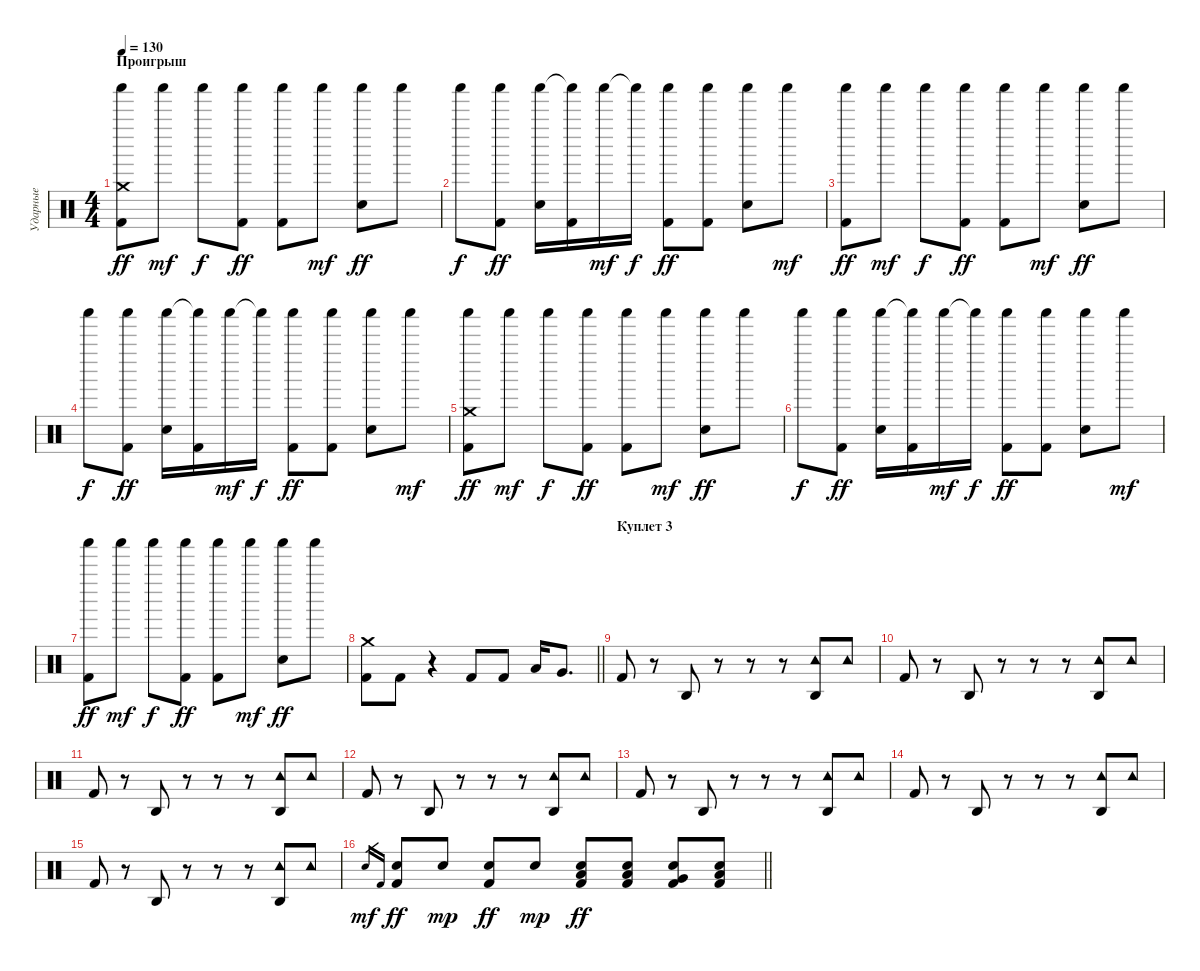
\track ("Ударные" "Ударные") {instrument percussion}
\staff {score}
\articulation defaults
\ts (4 4)
\section ("" "Проигрыш")
\tempo 130
\clef neutral
\ks c
("Shaker (hit)" "Kick (hit) 2" "Crash medium (hit)").8{dy ff} "Shaker (hit)".8{dy mf} "Shaker (hit)".8{dy f} ("Shaker (hit)" "Kick (hit) 2").8{dy ff} ("Shaker (hit)" "Kick (hit) 2").8 "Shaker (hit)".8{dy mf} ("Shaker (hit)" "Snare (hit) 2").8{dy ff} "Shaker (hit)".8 |
"Shaker (hit)".8{dy f} ("Shaker (hit)" "Kick (hit) 2").8{dy ff} ("Shaker (hit)" "Snare (hit) 2").16 ("Shaker (hit)"{t} "Kick (hit) 2").16 "Shaker (hit)".16{dy mf} "Shaker (hit)"{t}.16{dy f} ("Shaker (hit)" "Kick (hit) 2").8{dy ff} ("Shaker (hit)" "Kick (hit) 2").8 ("Shaker (hit)" "Snare (hit) 2").8 "Shaker (hit)".8{dy mf} |
("Shaker (hit)" "Kick (hit) 2").8{dy ff} "Shaker (hit)".8{dy mf} "Shaker (hit)".8{dy f} ("Shaker (hit)" "Kick (hit) 2").8{dy ff} ("Shaker (hit)" "Kick (hit) 2").8 "Shaker (hit)".8{dy mf} ("Shaker (hit)" "Snare (hit) 2").8{dy ff} "Shaker (hit)".8 |
"Shaker (hit)".8{dy f} ("Shaker (hit)" "Kick (hit) 2").8{dy ff} ("Shaker (hit)" "Snare (hit) 2").16 ("Shaker (hit)"{t} "Kick (hit) 2").16 "Shaker (hit)".16{dy mf} "Shaker (hit)"{t}.16{dy f} ("Shaker (hit)" "Kick (hit) 2").8{dy ff} ("Shaker (hit)" "Kick (hit) 2").8 ("Shaker (hit)" "Snare (hit) 2").8 "Shaker (hit)".8{dy mf} |
("Shaker (hit)" "Kick (hit) 2" "Crash medium (hit)").8{dy ff} "Shaker (hit)".8{dy mf} "Shaker (hit)".8{dy f} ("Shaker (hit)" "Kick (hit) 2").8{dy ff} ("Shaker (hit)" "Kick (hit) 2").8 "Shaker (hit)".8{dy mf} ("Shaker (hit)" "Snare (hit) 2").8{dy ff} "Shaker (hit)".8 |
"Shaker (hit)".8{dy f} ("Shaker (hit)" "Kick (hit) 2").8{dy ff} ("Shaker (hit)" "Snare (hit) 2").16 ("Shaker (hit)"{t} "Kick (hit) 2").16 "Shaker (hit)".16{dy mf} "Shaker (hit)"{t}.16{dy f} ("Shaker (hit)" "Kick (hit) 2").8{dy ff} ("Shaker (hit)" "Kick (hit) 2").8 ("Shaker (hit)" "Snare (hit) 2").8 "Shaker (hit)".8{dy mf} |
("Shaker (hit)" "Kick (hit) 2").8{dy ff} "Shaker (hit)".8{dy mf} "Shaker (hit)".8{dy f} ("Shaker (hit)" "Kick (hit) 2").8{dy ff} ("Shaker (hit)" "Kick (hit) 2").8 "Shaker (hit)".8{dy mf} ("Shaker (hit)" "Snare (hit) 2").8{dy ff} "Shaker (hit)".8 |
\barLineRight lightlight
("Kick (hit) 2" "Crash medium (hit)").8 "Kick (hit) 2".8 r.4 "Kick (hit) 2".8 "Kick (hit) 2".8 "Low Tom (hit)".16 "Very Low Tom (hit)".8{d} |
\section ("" "Куплет 3")
"Kick (hit) 2".8 r.8 "Agogo high (hit)".8 r.8 r.8 r.8 ("Agogo high (hit)" "Tambourine (hit)").8 "Tambourine (hit)".8 |
"Kick (hit) 2".8 r.8 "Agogo high (hit)".8 r.8 r.8 r.8 ("Agogo high (hit)" "Tambourine (hit)").8 "Tambourine (hit)".8 |
"Kick (hit) 2".8 r.8 "Agogo high (hit)".8 r.8 r.8 r.8 ("Agogo high (hit)" "Tambourine (hit)").8 "Tambourine (hit)".8 |
"Kick (hit) 2".8 r.8 "Agogo high (hit)".8 r.8 r.8 r.8 ("Agogo high (hit)" "Tambourine (hit)").8 "Tambourine (hit)".8 |
"Kick (hit) 2".8 r.8 "Agogo high (hit)".8 r.8 r.8 r.8 ("Agogo high (hit)" "Tambourine (hit)").8 "Tambourine (hit)".8 |
"Kick (hit) 2".8 r.8 "Agogo high (hit)".8 r.8 r.8 r.8 ("Agogo high (hit)" "Tambourine (hit)").8 "Tambourine (hit)".8 |
"Kick (hit) 2".8 r.8 "Agogo high (hit)".8 r.8 r.8 r.8 ("Agogo high (hit)" "Tambourine (hit)").8 "Tambourine (hit)".8 |
\barLineRight lightlight "Snare (hit) 2".16{gr dy mf} "Kick (hit) 2".16{gr}
("Snare (hit) 2" "Kick (hit) 2").8{dy ff} "Snare (hit) 2".8{dy mp} ("Snare (hit) 2" "Kick (hit) 2").8{dy ff} "Snare (hit) 2".8{dy mp} ("Low Tom (hit)" "Snare (hit) 2" "Kick (hit) 2").8{dy ff} ("Low Tom (hit)" "Snare (hit) 2" "Kick (hit) 2").8 ("Very Low Tom (hit)" "Snare (hit) 2" "Kick (hit) 2").8 ("Low Floor Tom (hit)" "Snare (hit) 2" "Kick (hit) 2").8
